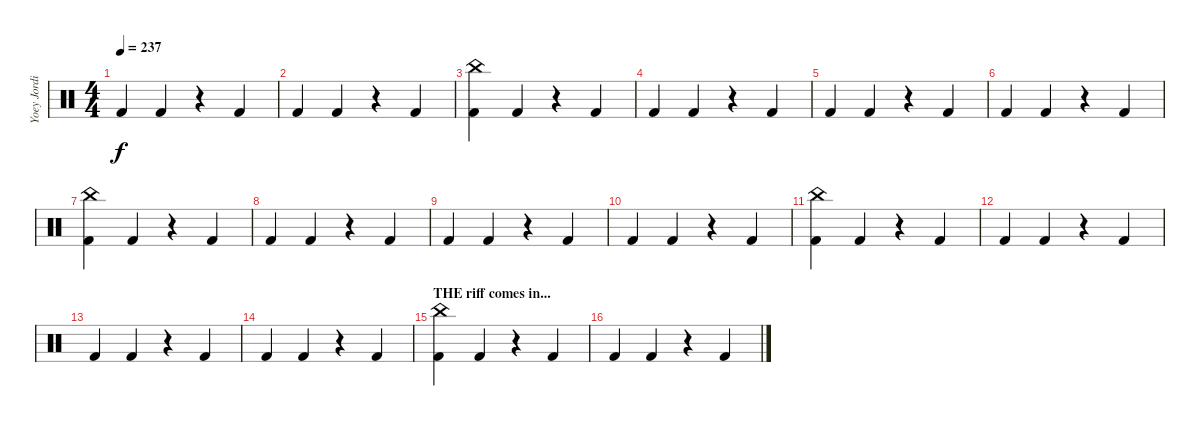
\track ("Yoey Jordison" "Yoey Jordi") {instrument percussion}
\staff {score}
\articulation defaults
\ts (4 4)
\tempo 237
\clef neutral
\ks c "Kick (hit) 2".4{dy f} "Kick (hit) 2".4
r.4 "Kick (hit) 2".4 |
"Kick (hit) 2".4 "Kick (hit) 2".4 r.4 "Kick (hit) 2".4 |
("China (hit)" "Kick (hit) 2").4 "Kick (hit) 2".4 r.4 "Kick (hit) 2".4 |
"Kick (hit) 2".4 "Kick (hit) 2".4 r.4 "Kick (hit) 2".4 |
"Kick (hit) 2".4 "Kick (hit) 2".4 r.4 "Kick (hit) 2".4 |
"Kick (hit) 2".4 "Kick (hit) 2".4 r.4 "Kick (hit) 2".4 |
("China (hit)" "Kick (hit) 2").4 "Kick (hit) 2".4 r.4 "Kick (hit) 2".4 |
"Kick (hit) 2".4 "Kick (hit) 2".4 r.4 "Kick (hit) 2".4 |
"Kick (hit) 2".4 "Kick (hit) 2".4 r.4 "Kick (hit) 2".4 |
"Kick (hit) 2".4 "Kick (hit) 2".4 r.4 "Kick (hit) 2".4 |
("China (hit)" "Kick (hit) 2").4 "Kick (hit) 2".4 r.4 "Kick (hit) 2".4 |
"Kick (hit) 2".4 "Kick (hit) 2".4 r.4 "Kick (hit) 2".4 |
"Kick (hit) 2".4 "Kick (hit) 2".4 r.4 "Kick (hit) 2".4 |
"Kick (hit) 2".4 "Kick (hit) 2".4 r.4 "Kick (hit) 2".4 |
\section ("" "THE riff comes in...")
("China (hit)" "Kick (hit) 2").4 "Kick (hit) 2".4 r.4 "Kick (hit) 2".4 |
"Kick (hit) 2".4 "Kick (hit) 2".4 r.4 "Kick (hit) 2".4
